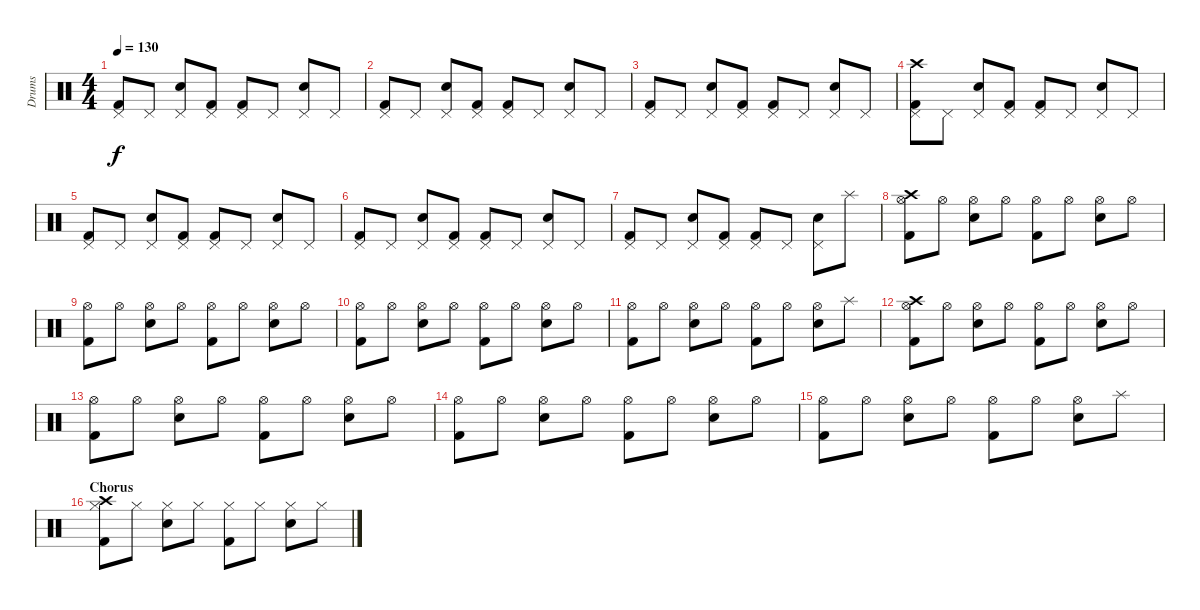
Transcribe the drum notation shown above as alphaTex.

\track ("Drums" "Drums") {instrument percussion}
\staff {score}
\articulation defaults
\ts (4 4)
\tempo 130
\clef neutral
\ks c
("Pedal Hi-Hat (hit)" "Kick (hit) 2").8{dy f} "Pedal Hi-Hat (hit)".8 ("Pedal Hi-Hat (hit)" "Electric Snare (hit)").8 ("Pedal Hi-Hat (hit)" "Kick (hit) 2").8 ("Pedal Hi-Hat (hit)" "Kick (hit) 2").8 "Pedal Hi-Hat (hit)".8 ("Pedal Hi-Hat (hit)" "Electric Snare (hit)").8 "Pedal Hi-Hat (hit)".8 |
("Pedal Hi-Hat (hit)" "Kick (hit) 2").8 "Pedal Hi-Hat (hit)".8 ("Pedal Hi-Hat (hit)" "Electric Snare (hit)").8 ("Pedal Hi-Hat (hit)" "Kick (hit) 2").8 ("Pedal Hi-Hat (hit)" "Kick (hit) 2").8 "Pedal Hi-Hat (hit)".8 ("Pedal Hi-Hat (hit)" "Electric Snare (hit)").8 "Pedal Hi-Hat (hit)".8 |
("Pedal Hi-Hat (hit)" "Kick (hit) 2").8 "Pedal Hi-Hat (hit)".8 ("Pedal Hi-Hat (hit)" "Electric Snare (hit)").8 ("Pedal Hi-Hat (hit)" "Kick (hit) 2").8 ("Pedal Hi-Hat (hit)" "Kick (hit) 2").8 "Pedal Hi-Hat (hit)".8 ("Pedal Hi-Hat (hit)" "Electric Snare (hit)").8 "Pedal Hi-Hat (hit)".8 |
("Crash high (hit)" "Pedal Hi-Hat (hit)" "Kick (hit) 2").8 "Pedal Hi-Hat (hit)".8 ("Pedal Hi-Hat (hit)" "Electric Snare (hit)").8 ("Pedal Hi-Hat (hit)" "Kick (hit) 2").8 ("Pedal Hi-Hat (hit)" "Kick (hit) 2").8 "Pedal Hi-Hat (hit)".8 ("Pedal Hi-Hat (hit)" "Electric Snare (hit)").8 "Pedal Hi-Hat (hit)".8 |
("Pedal Hi-Hat (hit)" "Kick (hit) 2").8 "Pedal Hi-Hat (hit)".8 ("Pedal Hi-Hat (hit)" "Electric Snare (hit)").8 ("Pedal Hi-Hat (hit)" "Kick (hit) 2").8 ("Pedal Hi-Hat (hit)" "Kick (hit) 2").8 "Pedal Hi-Hat (hit)".8 ("Pedal Hi-Hat (hit)" "Electric Snare (hit)").8 "Pedal Hi-Hat (hit)".8 |
("Pedal Hi-Hat (hit)" "Kick (hit) 2").8 "Pedal Hi-Hat (hit)".8 ("Pedal Hi-Hat (hit)" "Electric Snare (hit)").8 ("Pedal Hi-Hat (hit)" "Kick (hit) 2").8 ("Pedal Hi-Hat (hit)" "Kick (hit) 2").8 "Pedal Hi-Hat (hit)".8 ("Pedal Hi-Hat (hit)" "Electric Snare (hit)").8 "Pedal Hi-Hat (hit)".8 |
("Pedal Hi-Hat (hit)" "Kick (hit) 2").8 "Pedal Hi-Hat (hit)".8 ("Pedal Hi-Hat (hit)" "Electric Snare (hit)").8 ("Pedal Hi-Hat (hit)" "Kick (hit) 2").8 ("Pedal Hi-Hat (hit)" "Kick (hit) 2").8 "Pedal Hi-Hat (hit)".8 ("Pedal Hi-Hat (hit)" "Electric Snare (hit)").8 "Splash (hit)".8 |
("Crash high (hit)" "Hi-Hat (open)" "Kick (hit) 2").8 "Hi-Hat (open)".8 ("Hi-Hat (open)" "Electric Snare (hit)").8 "Hi-Hat (open)".8 ("Hi-Hat (open)" "Kick (hit) 2").8 "Hi-Hat (open)".8 ("Hi-Hat (open)" "Electric Snare (hit)").8 "Hi-Hat (open)".8 |
("Hi-Hat (open)" "Kick (hit) 2").8 "Hi-Hat (open)".8 ("Hi-Hat (open)" "Electric Snare (hit)").8 "Hi-Hat (open)".8 ("Hi-Hat (open)" "Kick (hit) 2").8 "Hi-Hat (open)".8 ("Hi-Hat (open)" "Electric Snare (hit)").8 "Hi-Hat (open)".8 |
("Hi-Hat (open)" "Kick (hit) 2").8 "Hi-Hat (open)".8 ("Hi-Hat (open)" "Electric Snare (hit)").8 "Hi-Hat (open)".8 ("Hi-Hat (open)" "Kick (hit) 2").8 "Hi-Hat (open)".8 ("Hi-Hat (open)" "Electric Snare (hit)").8 "Hi-Hat (open)".8 |
("Hi-Hat (open)" "Kick (hit) 2").8 "Hi-Hat (open)".8 ("Hi-Hat (open)" "Electric Snare (hit)").8 "Hi-Hat (open)".8 ("Hi-Hat (open)" "Kick (hit) 2").8 "Hi-Hat (open)".8 ("Hi-Hat (open)" "Electric Snare (hit)").8 "Splash (hit)".8 |
("Crash high (hit)" "Hi-Hat (open)" "Kick (hit) 2").8 "Hi-Hat (open)".8 ("Hi-Hat (open)" "Electric Snare (hit)").8 "Hi-Hat (open)".8 ("Hi-Hat (open)" "Kick (hit) 2").8 "Hi-Hat (open)".8 ("Hi-Hat (open)" "Electric Snare (hit)").8 "Hi-Hat (open)".8 |
("Hi-Hat (open)" "Kick (hit) 2").8 "Hi-Hat (open)".8 ("Hi-Hat (open)" "Electric Snare (hit)").8 "Hi-Hat (open)".8 ("Hi-Hat (open)" "Kick (hit) 2").8 "Hi-Hat (open)".8 ("Hi-Hat (open)" "Electric Snare (hit)").8 "Hi-Hat (open)".8 |
("Hi-Hat (open)" "Kick (hit) 2").8 "Hi-Hat (open)".8 ("Hi-Hat (open)" "Electric Snare (hit)").8 "Hi-Hat (open)".8 ("Hi-Hat (open)" "Kick (hit) 2").8 "Hi-Hat (open)".8 ("Hi-Hat (open)" "Electric Snare (hit)").8 "Hi-Hat (open)".8 |
("Hi-Hat (open)" "Kick (hit) 2").8 "Hi-Hat (open)".8 ("Hi-Hat (open)" "Electric Snare (hit)").8 "Hi-Hat (open)".8 ("Hi-Hat (open)" "Kick (hit) 2").8 "Hi-Hat (open)".8 ("Hi-Hat (open)" "Electric Snare (hit)").8 "Splash (hit)".8 |
\section ("" "Chorus")
("Crash high (hit)" "Hi-Hat (closed)" "Kick (hit) 2").8 "Hi-Hat (closed)".8 ("Hi-Hat (closed)" "Electric Snare (hit)").8 "Hi-Hat (closed)".8 ("Hi-Hat (closed)" "Kick (hit) 2").8 "Hi-Hat (closed)".8 ("Hi-Hat (closed)" "Electric Snare (hit)").8 "Hi-Hat (closed)".8
